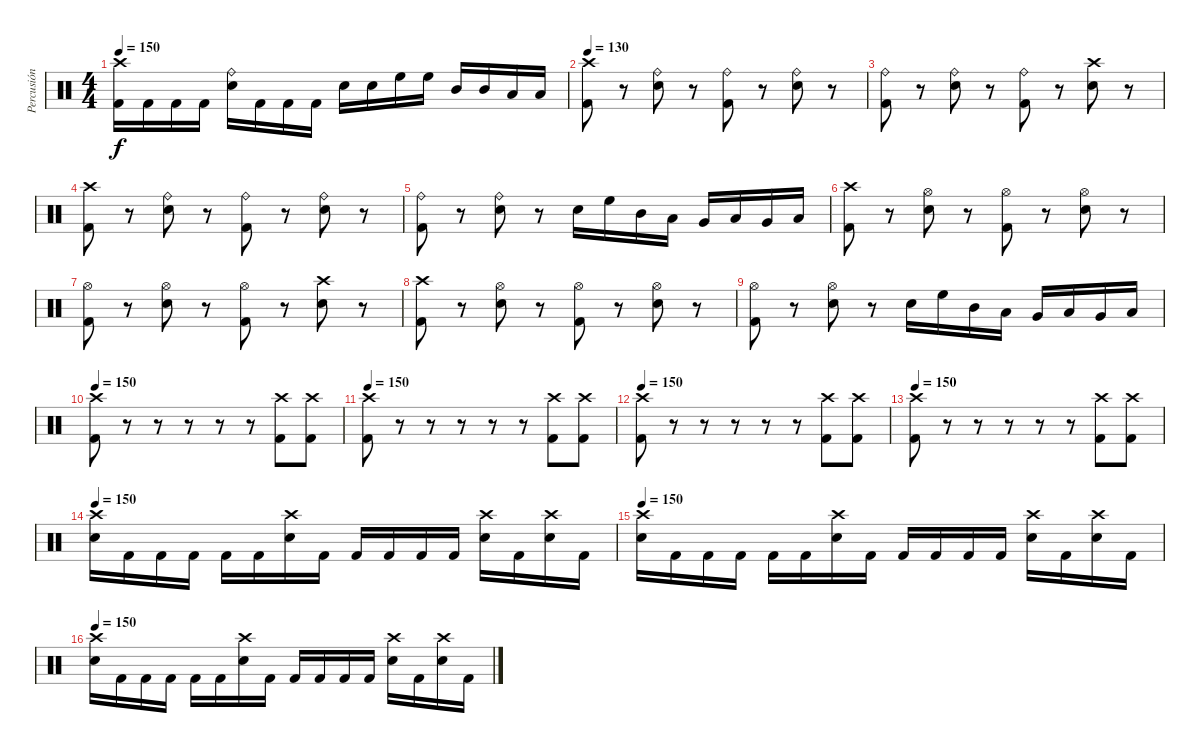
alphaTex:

\track ("Percusión" "Percusión") {instrument percussion}
\staff {score}
\articulation defaults
\ts (4 4)
\tempo 150
\clef neutral
\ks c
("Crash high (hit)" "Kick (hit) 2").16{dy f} "Kick (hit) 2".16 "Kick (hit) 2".16 "Kick (hit) 2".16 ("Ride (bell)" "Electric Snare (hit)").16 "Kick (hit) 2".16 "Kick (hit) 2".16 "Kick (hit) 2".16 "Electric Snare (hit)".16 "Electric Snare (hit)".16 "High Floor Tom (hit)".16 "High Floor Tom (hit)".16 "Mid Tom (hit)".16 "Mid Tom (hit)".16 "Low Tom (hit)".16 "Low Tom (hit)".16 |
\tempo 130
("Crash high (hit)" "Kick (hit) 2").8 r.8 ("Ride (bell)" "Electric Snare (hit)").8 r.8 ("Ride (bell)" "Kick (hit) 2").8 r.8 ("Ride (bell)" "Electric Snare (hit)").8 r.8 |
("Ride (bell)" "Kick (hit) 2").8 r.8 ("Ride (bell)" "Electric Snare (hit)").8 r.8 ("Ride (bell)" "Kick (hit) 2").8 r.8 ("Crash high (hit)" "Electric Snare (hit)").8 r.8 |
("Crash high (hit)" "Kick (hit) 2").8 r.8 ("Ride (bell)" "Electric Snare (hit)").8 r.8 ("Ride (bell)" "Kick (hit) 2").8 r.8 ("Ride (bell)" "Electric Snare (hit)").8 r.8 |
("Ride (bell)" "Kick (hit) 2").8 r.8 ("Ride (bell)" "Electric Snare (hit)").8 r.8 "Electric Snare (hit)".16 "High Floor Tom (hit)".16 "Mid Tom (hit)".16 "Low Tom (hit)".16 "Very Low Tom (hit)".16 "Low Tom (hit)".16 "Very Low Tom (hit)".16 "Low Floor Tom (hit)".16 |
("Crash high (hit)" "Kick (hit) 2").8 r.8 ("Hi-Hat (open)" "Electric Snare (hit)").8 r.8 ("Hi-Hat (open)" "Kick (hit) 2").8 r.8 ("Hi-Hat (open)" "Electric Snare (hit)").8 r.8 |
("Hi-Hat (open)" "Kick (hit) 2").8 r.8 ("Hi-Hat (open)" "Electric Snare (hit)").8 r.8 ("Hi-Hat (open)" "Kick (hit) 2").8 r.8 ("Crash high (hit)" "Electric Snare (hit)").8 r.8 |
("Crash high (hit)" "Kick (hit) 2").8 r.8 ("Hi-Hat (open)" "Electric Snare (hit)").8 r.8 ("Hi-Hat (open)" "Kick (hit) 2").8 r.8 ("Hi-Hat (open)" "Electric Snare (hit)").8 r.8 |
("Hi-Hat (open)" "Kick (hit) 2").8 r.8 ("Hi-Hat (open)" "Electric Snare (hit)").8 r.8 "Electric Snare (hit)".16 "High Floor Tom (hit)".16 "Mid Tom (hit)".16 "Low Tom (hit)".16 "Very Low Tom (hit)".16 "Low Tom (hit)".16 "Very Low Tom (hit)".16 "Low Floor Tom (hit)".16 |
\tempo 150
("Crash high (hit)" "Kick (hit) 2").8 r.8 r.8 r.8 r.8 r.8 ("Crash high (hit)" "Kick (hit) 2").8 ("Crash high (hit)" "Kick (hit) 2").8 |
\tempo 150
("Crash high (hit)" "Kick (hit) 2").8 r.8 r.8 r.8 r.8 r.8 ("Crash high (hit)" "Kick (hit) 2").8 ("Crash high (hit)" "Kick (hit) 2").8 |
\tempo 150
("Crash high (hit)" "Kick (hit) 2").8 r.8 r.8 r.8 r.8 r.8 ("Crash high (hit)" "Kick (hit) 2").8 ("Crash high (hit)" "Kick (hit) 2").8 |
\tempo 150
("Crash high (hit)" "Kick (hit) 2").8 r.8 r.8 r.8 r.8 r.8 ("Crash high (hit)" "Kick (hit) 2").8 ("Crash high (hit)" "Kick (hit) 2").8 |
\tempo 150
("Crash high (hit)" "Electric Snare (hit)").16 "Kick (hit) 2".16 "Kick (hit) 2".16 "Kick (hit) 2".16 "Kick (hit) 2".16 "Kick (hit) 2".16 ("Crash high (hit)" "Electric Snare (hit)").16 "Kick (hit) 2".16 "Kick (hit) 2".16 "Kick (hit) 2".16 "Kick (hit) 2".16 "Kick (hit) 2".16 ("Crash high (hit)" "Electric Snare (hit)").16 "Kick (hit) 2".16 ("Crash high (hit)" "Electric Snare (hit)").16 "Kick (hit) 2".16 |
\tempo 150
("Crash high (hit)" "Electric Snare (hit)").16 "Kick (hit) 2".16 "Kick (hit) 2".16 "Kick (hit) 2".16 "Kick (hit) 2".16 "Kick (hit) 2".16 ("Crash high (hit)" "Electric Snare (hit)").16 "Kick (hit) 2".16 "Kick (hit) 2".16 "Kick (hit) 2".16 "Kick (hit) 2".16 "Kick (hit) 2".16 ("Crash high (hit)" "Electric Snare (hit)").16 "Kick (hit) 2".16 ("Crash high (hit)" "Electric Snare (hit)").16 "Kick (hit) 2".16 |
\tempo 150
("Crash high (hit)" "Electric Snare (hit)").16 "Kick (hit) 2".16 "Kick (hit) 2".16 "Kick (hit) 2".16 "Kick (hit) 2".16 "Kick (hit) 2".16 ("Crash high (hit)" "Electric Snare (hit)").16 "Kick (hit) 2".16 "Kick (hit) 2".16 "Kick (hit) 2".16 "Kick (hit) 2".16 "Kick (hit) 2".16 ("Crash high (hit)" "Electric Snare (hit)").16 "Kick (hit) 2".16 ("Crash high (hit)" "Electric Snare (hit)").16 "Kick (hit) 2".16
